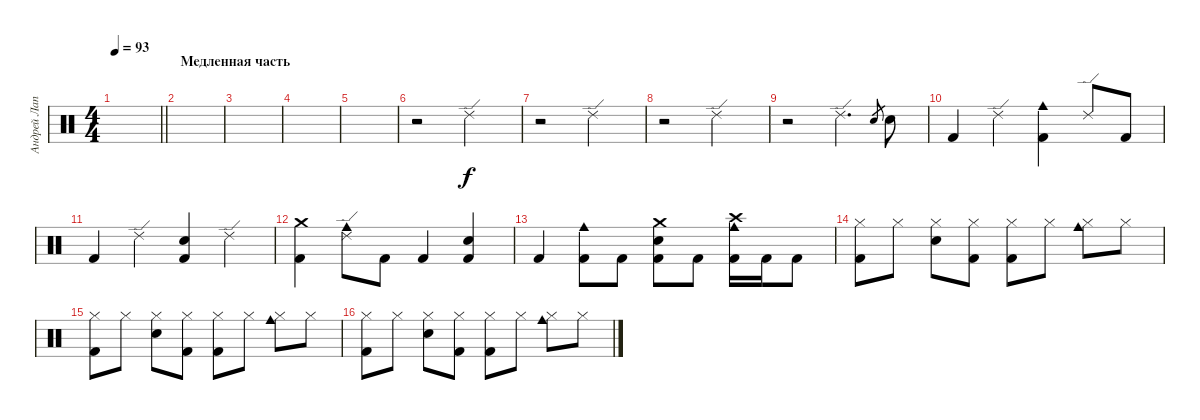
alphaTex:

\track ("Андрей Лаптев" "Андрей Лап") {instrument percussion}
\staff {score}
\articulation defaults
\ts (4 4)
\tempo 93
\clef neutral
\barLineRight lightlight
\ks c
|
\section ("" "Медленная часть")
|
|
|
|
r.2 "Ride (edge) 2".2 |
r.2 "Ride (edge) 2".2 |
r.2 "Ride (edge) 2".2 |
r.2 "Ride (edge) 2".4{d} "Electric Snare (hit)".8{gr} "Electric Snare (hit)".8 |
"Kick (hit) 2".4 "Ride (edge) 2".4 ("Kick (hit) 2" "Cowbell medium (hit)").4 "Ride (edge) 2".8 "Kick (hit) 2".8 |
"Kick (hit) 2".4 "Ride (edge) 2".4 ("Kick (hit) 2" "Electric Snare (hit)").4 "Ride (edge) 2".4 |
("Kick (hit) 2" "Crash medium (hit)").4 ("Cowbell medium (hit)" "Ride (edge) 2").8 "Kick (hit) 2".8 "Kick (hit) 2".4 ("Kick (hit) 2" "Electric Snare (hit)").4 |
"Kick (hit) 2".4 ("Kick (hit) 2" "Cowbell medium (hit)").8 "Kick (hit) 2".8 ("Kick (hit) 2" "Crash medium (hit)" "Electric Snare (hit)").8 "Kick (hit) 2".8 ("Kick (hit) 2" "Crash high (hit)" "Cowbell medium (hit)").16 "Kick (hit) 2".16 "Kick (hit) 2".8 |
("Kick (hit) 2" "Hi-Hat (closed)").8 "Hi-Hat (closed)".8 ("Electric Snare (hit)" "Hi-Hat (closed)").8 ("Kick (hit) 2" "Hi-Hat (closed)").8 ("Kick (hit) 2" "Hi-Hat (closed)").8 "Hi-Hat (closed)".8 ("Cowbell medium (hit)" "Hi-Hat (closed)").8 "Hi-Hat (closed)".8 |
("Kick (hit) 2" "Hi-Hat (closed)").8 "Hi-Hat (closed)".8 ("Electric Snare (hit)" "Hi-Hat (closed)").8 ("Kick (hit) 2" "Hi-Hat (closed)").8 ("Kick (hit) 2" "Hi-Hat (closed)").8 "Hi-Hat (closed)".8 ("Cowbell medium (hit)" "Hi-Hat (closed)").8 "Hi-Hat (closed)".8 |
("Kick (hit) 2" "Hi-Hat (closed)").8 "Hi-Hat (closed)".8 ("Electric Snare (hit)" "Hi-Hat (closed)").8 ("Kick (hit) 2" "Hi-Hat (closed)").8 ("Kick (hit) 2" "Hi-Hat (closed)").8 "Hi-Hat (closed)".8 ("Cowbell medium (hit)" "Hi-Hat (closed)").8 "Hi-Hat (closed)".8
